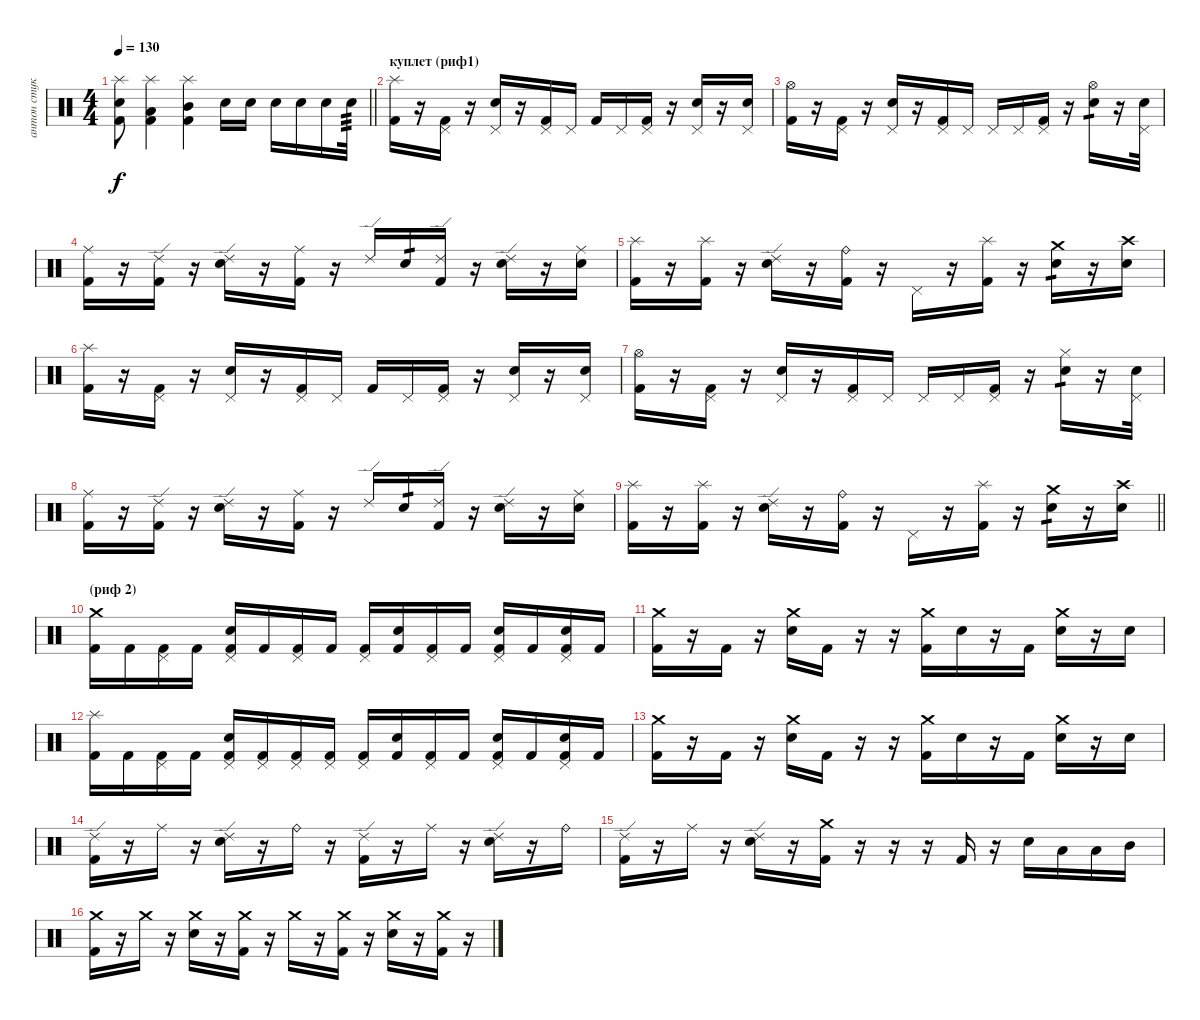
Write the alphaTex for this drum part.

\track ("антон стукачь" "антон стук") {instrument percussion}
\staff {score}
\articulation defaults
\ts (4 4)
\tempo 130
\clef neutral
\barLineRight lightlight
\ks c
("Splash (hit)" "Electric Snare (hit)" "Kick (hit) 2").8{dy f} ("Splash (hit)" "Low Tom (hit)" "Kick (hit) 2").4 ("Splash (hit)" "Mid Tom (hit)" "Kick (hit) 2").4 "Electric Snare (hit)".16 "Electric Snare (hit)".16 "Electric Snare (hit)".16 "Electric Snare (hit)".16 "Electric Snare (hit)".16 "Electric Snare (hit)".32{tp 3} |
\section ("" "куплет (риф1) ")
("Splash (hit)" "Kick (hit) 2").16 r.16 ("Pedal Hi-Hat (hit)" "Kick (hit) 2").16 r.16 ("Pedal Hi-Hat (hit)" "Electric Snare (hit)").16 r.16 ("Pedal Hi-Hat (hit)" "Kick (hit) 2").16 "Pedal Hi-Hat (hit)".16 "Kick (hit) 2".16 "Pedal Hi-Hat (hit)".16 ("Pedal Hi-Hat (hit)" "Kick (hit) 2").16 r.16 ("Pedal Hi-Hat (hit)" "Electric Snare (hit)").16 r.16 ("Pedal Hi-Hat (hit)" "Electric Snare (hit)").16 |
("Hi-Hat (open)" "Kick (hit) 2").16 r.16 ("Pedal Hi-Hat (hit)" "Kick (hit) 2").16 r.16 ("Pedal Hi-Hat (hit)" "Electric Snare (hit)").16 r.16 ("Pedal Hi-Hat (hit)" "Kick (hit) 2").16 "Pedal Hi-Hat (hit)".16 "Pedal Hi-Hat (hit)".16 "Pedal Hi-Hat (hit)".16 ("Pedal Hi-Hat (hit)" "Kick (hit) 2").16 r.16 ("Hi-Hat (open)" "Electric Snare (hit)").16{tp 1} r.16 ("Pedal Hi-Hat (hit)" "Electric Snare (hit)").32 |
("Ride (middle)" "Kick (hit) 2").16 r.16 ("Ride (edge) 2" "Kick (hit) 2").16 r.16 ("Ride (edge) 2" "Electric Snare (hit)").16 r.16 ("Ride (middle)" "Kick (hit) 2").16 r.16 "Ride (edge) 2".16 "Electric Snare (hit)".16{tp 1} ("Ride (edge) 2" "Kick (hit) 2").16 r.16 ("Ride (edge) 2" "Electric Snare (hit)").16 r.16 ("Ride (middle)" "Electric Snare (hit)").16 |
("Splash (hit)" "Kick (hit) 2").16 r.16 ("Splash (hit)" "Kick (hit) 2").16 r.16 ("Ride (edge) 2" "Electric Snare (hit)").16 r.16 ("Ride (bell)" "Kick (hit) 2").16 r.16 "Pedal Hi-Hat (hit)".16 r.16 ("Splash (hit)" "Kick (hit) 2").16 r.16 ("Crash medium (hit)" "Electric Snare (hit)").16{tp 1} r.16 ("Crash high (hit)" "Electric Snare (hit)").16 |
("Splash (hit)" "Kick (hit) 2").16 r.16 ("Pedal Hi-Hat (hit)" "Kick (hit) 2").16 r.16 ("Pedal Hi-Hat (hit)" "Electric Snare (hit)").16 r.16 ("Pedal Hi-Hat (hit)" "Kick (hit) 2").16 "Pedal Hi-Hat (hit)".16 "Kick (hit) 2".16 "Pedal Hi-Hat (hit)".16 ("Pedal Hi-Hat (hit)" "Kick (hit) 2").16 r.16 ("Pedal Hi-Hat (hit)" "Electric Snare (hit)").16 r.16 ("Pedal Hi-Hat (hit)" "Electric Snare (hit)").16 |
("Hi-Hat (open)" "Kick (hit) 2").16 r.16 ("Pedal Hi-Hat (hit)" "Kick (hit) 2").16 r.16 ("Pedal Hi-Hat (hit)" "Electric Snare (hit)").16 r.16 ("Pedal Hi-Hat (hit)" "Kick (hit) 2").16 "Pedal Hi-Hat (hit)".16 "Pedal Hi-Hat (hit)".16 "Pedal Hi-Hat (hit)".16 ("Pedal Hi-Hat (hit)" "Kick (hit) 2").16 r.16 ("Hi-Hat (closed)" "Electric Snare (hit)").16{tp 1} r.16 ("Pedal Hi-Hat (hit)" "Electric Snare (hit)").32 |
("Ride (middle)" "Kick (hit) 2").16 r.16 ("Ride (edge) 2" "Kick (hit) 2").16 r.16 ("Ride (edge) 2" "Electric Snare (hit)").16 r.16 ("Ride (middle)" "Kick (hit) 2").16 r.16 "Ride (edge) 2".16 "Electric Snare (hit)".16{tp 1} ("Ride (edge) 2" "Kick (hit) 2").16 r.16 ("Ride (edge) 2" "Electric Snare (hit)").16 r.16 ("Ride (middle)" "Electric Snare (hit)").16 |
\barLineRight lightlight
("Splash (hit)" "Kick (hit) 2").16 r.16 ("Splash (hit)" "Kick (hit) 2").16 r.16 ("Ride (edge) 2" "Electric Snare (hit)").16 r.16 ("Ride (bell)" "Kick (hit) 2").16 r.16 "Pedal Hi-Hat (hit)".16 r.16 ("Splash (hit)" "Kick (hit) 2").16 r.16 ("Crash medium (hit)" "Electric Snare (hit)").16{tp 1} r.16 ("Crash high (hit)" "Electric Snare (hit)").16 |
\section ("" "(риф 2)")
("Crash medium (hit)" "Kick (hit) 2").16 "Kick (hit) 2".16 ("Pedal Hi-Hat (hit)" "Kick (hit) 2").16 "Kick (hit) 2".16 ("Pedal Hi-Hat (hit)" "Electric Snare (hit)" "Kick (hit) 2").16 "Kick (hit) 2".16 ("Pedal Hi-Hat (hit)" "Kick (hit) 2").16 "Kick (hit) 2".16 ("Pedal Hi-Hat (hit)" "Kick (hit) 2").16 ("Electric Snare (hit)" "Kick (hit) 2").16 ("Pedal Hi-Hat (hit)" "Kick (hit) 2").16 "Kick (hit) 2".16 ("Pedal Hi-Hat (hit)" "Electric Snare (hit)" "Kick (hit) 2").16 "Kick (hit) 2".16 ("Pedal Hi-Hat (hit)" "Electric Snare (hit)" "Kick (hit) 2").16 "Kick (hit) 2".16 |
("Crash medium (hit)" "Kick (hit) 2").16 r.16 "Kick (hit) 2".16 r.16 ("Crash medium (hit)" "Electric Snare (hit)").16 "Kick (hit) 2".16 r.16 r.16 ("Crash medium (hit)" "Kick (hit) 2").16 "Electric Snare (hit)".16 r.16 "Kick (hit) 2".16 ("Crash medium (hit)" "Electric Snare (hit)").16 r.16 "Electric Snare (hit)".16 |
("Splash (hit)" "Kick (hit) 2").16 "Kick (hit) 2".16 ("Pedal Hi-Hat (hit)" "Kick (hit) 2").16 "Kick (hit) 2".16 ("Pedal Hi-Hat (hit)" "Electric Snare (hit)" "Kick (hit) 2").16 ("Pedal Hi-Hat (hit)" "Kick (hit) 2").16 ("Pedal Hi-Hat (hit)" "Kick (hit) 2").16 ("Pedal Hi-Hat (hit)" "Kick (hit) 2").16 ("Pedal Hi-Hat (hit)" "Kick (hit) 2").16 ("Electric Snare (hit)" "Kick (hit) 2").16 ("Pedal Hi-Hat (hit)" "Kick (hit) 2").16 "Kick (hit) 2".16 ("Pedal Hi-Hat (hit)" "Electric Snare (hit)" "Kick (hit) 2").16 "Kick (hit) 2".16 ("Pedal Hi-Hat (hit)" "Electric Snare (hit)" "Kick (hit) 2").16 "Kick (hit) 2".16 |
("Crash medium (hit)" "Kick (hit) 2").16 r.16 "Kick (hit) 2".16 r.16 ("Crash medium (hit)" "Electric Snare (hit)").16 "Kick (hit) 2".16 r.16 r.16 ("Crash medium (hit)" "Kick (hit) 2").16 "Electric Snare (hit)".16 r.16 "Kick (hit) 2".16 ("Crash medium (hit)" "Electric Snare (hit)").16 r.16 "Electric Snare (hit)".16 |
("Ride (edge) 2" "Kick (hit) 2").16 r.16 "Ride (middle)".16 r.16 ("Ride (edge) 2" "Electric Snare (hit)").16 r.16 "Ride (bell)".16 r.16 ("Ride (edge) 2" "Kick (hit) 2").16 r.16 "Ride (middle)".16 r.16 ("Ride (edge) 2" "Electric Snare (hit)").16 r.16 "Ride (bell)".16 |
("Ride (edge) 2" "Kick (hit) 2").16 r.16 "Ride (middle)".16 r.16 ("Ride (edge) 2" "Electric Snare (hit)").16 r.16 ("Crash medium (hit)" "Kick (hit) 2").16 r.16 r.16 r.16 "Kick (hit) 2".16 r.16 "Electric Snare (hit)".16 "Low Tom (hit)".16 "Low Tom (hit)".16 "Mid Tom (hit)".16 |
("Crash medium (hit)" "Kick (hit) 2").16 r.16 "Crash medium (hit)".16 r.16 ("Crash medium (hit)" "Electric Snare (hit)").16 r.16 ("Crash medium (hit)" "Kick (hit) 2").16 r.16 "Crash medium (hit)".16 r.16 ("Crash medium (hit)" "Kick (hit) 2").16 r.16 ("Crash medium (hit)" "Electric Snare (hit)").16 r.16 ("Crash medium (hit)" "Kick (hit) 2").16 r.16
